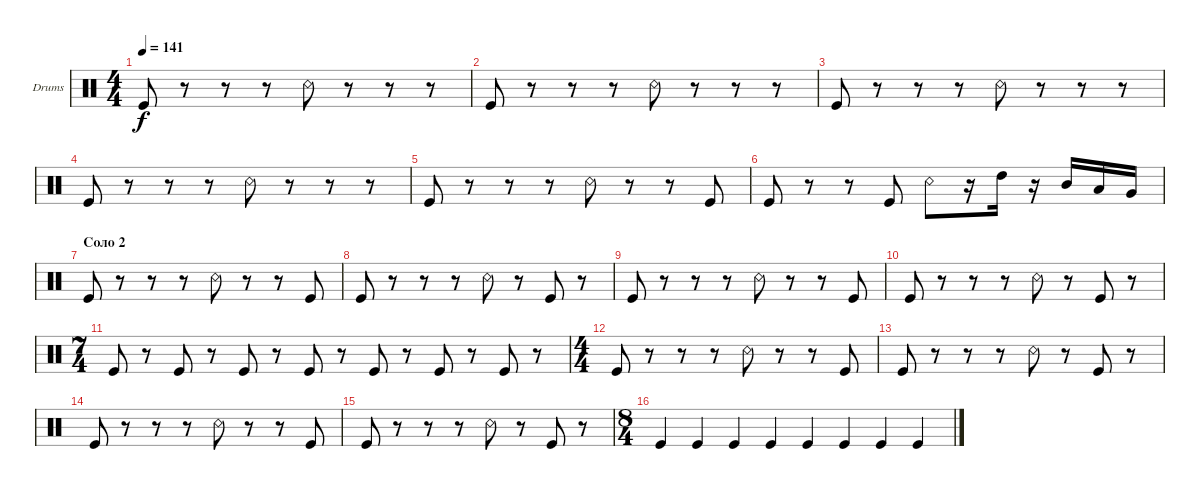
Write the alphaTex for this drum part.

\defaultSystemsLayout 4
\bracketExtendMode groupsimilarinstruments
\firstSystemTrackNameOrientation horizontal
\otherSystemsTrackNameOrientation horizontal
\track ("Drumkit" "Drums") {instrument percussion}
\staff {score}
\articulation defaults
\ts (4 4)
\tempo 141
\clef neutral
\ks c "Kick (hit)".8{dy f}
r.8 r.8 r.8 "Snare (rim shot)".8 r.8 r.8 r.8 |
"Kick (hit)".8 r.8 r.8 r.8 "Snare (rim shot)".8 r.8 r.8 r.8 |
"Kick (hit)".8 r.8 r.8 r.8 "Snare (rim shot)".8 r.8 r.8 r.8 |
"Kick (hit)".8 r.8 r.8 r.8 "Snare (rim shot)".8 r.8 r.8 r.8 |
"Kick (hit)".8 r.8 r.8 r.8 "Snare (rim shot)".8 r.8 r.8 "Kick (hit)".8 |
"Kick (hit)".8 r.8 r.8 "Kick (hit)".8 "Snare (rim shot)".8 r.16 "High Tom (hit)".16 r.16 "Mid Tom (hit)".16 "Low Tom (hit)".16 "Very Low Tom (hit)".16 |
\section ("" "Соло 2")
"Kick (hit)".8 r.8 r.8 r.8 "Snare (rim shot)".8 r.8 r.8 "Kick (hit)".8 |
"Kick (hit)".8 r.8 r.8 r.8 "Snare (rim shot)".8 r.8 "Kick (hit)".8 r.8 |
"Kick (hit)".8 r.8 r.8 r.8 "Snare (rim shot)".8 r.8 r.8 "Kick (hit)".8 |
"Kick (hit)".8 r.8 r.8 r.8 "Snare (rim shot)".8 r.8 "Kick (hit)".8 r.8 |
\ts (7 4)
"Kick (hit)".8 r.8 "Kick (hit)".8 r.8 "Kick (hit)".8 r.8 "Kick (hit)".8 r.8 "Kick (hit)".8 r.8 "Kick (hit)".8 r.8 "Kick (hit)".8 r.8 |
\ts (4 4)
"Kick (hit)".8 r.8 r.8 r.8 "Snare (rim shot)".8 r.8 r.8 "Kick (hit)".8 |
"Kick (hit)".8 r.8 r.8 r.8 "Snare (rim shot)".8 r.8 "Kick (hit)".8 r.8 |
"Kick (hit)".8 r.8 r.8 r.8 "Snare (rim shot)".8 r.8 r.8 "Kick (hit)".8 |
"Kick (hit)".8 r.8 r.8 r.8 "Snare (rim shot)".8 r.8 "Kick (hit)".8 r.8 |
\ts (8 4)
"Kick (hit)".4 "Kick (hit)".4 "Kick (hit)".4 "Kick (hit)".4 "Kick (hit)".4 "Kick (hit)".4 "Kick (hit)".4 "Kick (hit)".4
